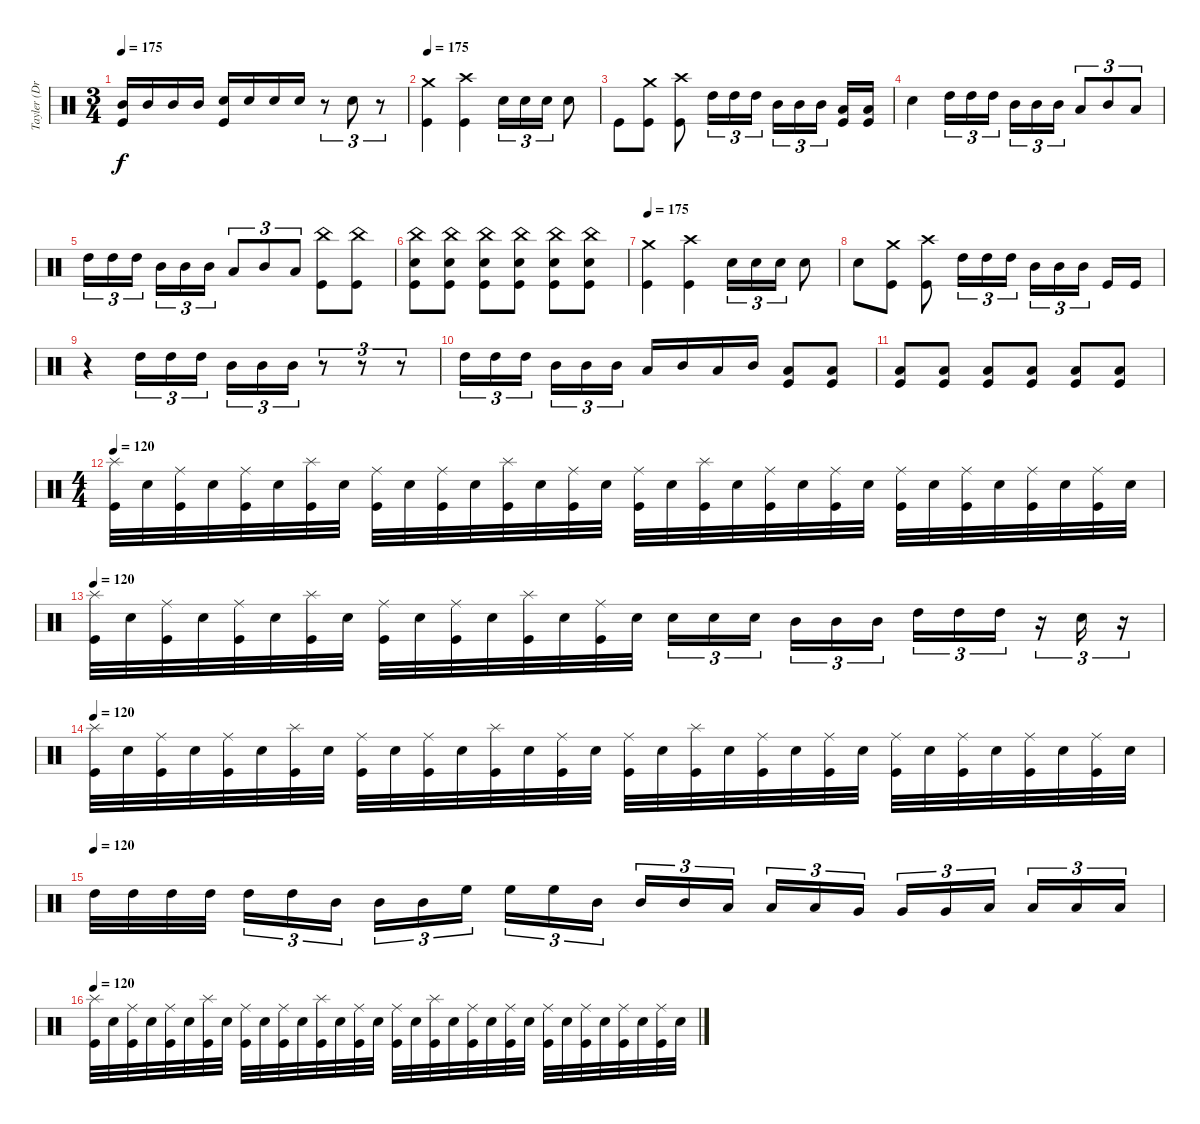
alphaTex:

\track ("Tayler (Drums)" "Tayler (Dr") {instrument percussion}
\staff {score}
\articulation defaults
\ts (3 4)
\tempo 175
\clef neutral
\ks c
("Mid Tom (hit)" "Kick (hit)").16{dy f} "Mid Tom (hit)".16 "Mid Tom (hit)".16 "Mid Tom (hit)".16 ("Electric Snare (hit)" "Kick (hit)").16 "Electric Snare (hit)".16 "Electric Snare (hit)".16 "Electric Snare (hit)".16 r.8{tu (3 2)} "Electric Snare (hit)".8{tu (3 2)} r.8{tu (3 2)} |
\tempo 175
("Crash medium (hit)" "Kick (hit)").4 ("Crash high (hit)" "Kick (hit)").4 "Electric Snare (hit)".16{tu (3 2)} "Electric Snare (hit)".16{tu (3 2)} "Electric Snare (hit)".16{tu (3 2)} "Electric Snare (hit)".8 |
"Kick (hit)".8 ("Crash medium (hit)" "Kick (hit)").8 ("Crash high (hit)" "Kick (hit)").8 "High Tom (hit)".16{tu (3 2)} "High Tom (hit)".16{tu (3 2)} "High Tom (hit)".16{tu (3 2)} "Mid Tom (hit)".16{tu (3 2)} "Mid Tom (hit)".16{tu (3 2)} "Mid Tom (hit)".16{tu (3 2)} ("Low Tom (hit)" "Kick (hit)").16 ("Low Tom (hit)" "Kick (hit)").16 |
"Electric Snare (hit)".4 "High Tom (hit)".16{tu (3 2)} "High Tom (hit)".16{tu (3 2)} "High Tom (hit)".16{tu (3 2)} "Mid Tom (hit)".16{tu (3 2)} "Mid Tom (hit)".16{tu (3 2)} "Mid Tom (hit)".16{tu (3 2)} "Low Tom (hit)".8{tu (3 2)} "Mid Tom (hit)".8{tu (3 2)} "Low Tom (hit)".8{tu (3 2)} |
"High Tom (hit)".16{tu (3 2)} "High Tom (hit)".16{tu (3 2)} "High Tom (hit)".16{tu (3 2)} "Mid Tom (hit)".16{tu (3 2)} "Mid Tom (hit)".16{tu (3 2)} "Mid Tom (hit)".16{tu (3 2)} "Low Tom (hit)".8{tu (3 2)} "Mid Tom (hit)".8{tu (3 2)} "Low Tom (hit)".8{tu (3 2)} ("China (hit)" "Kick (hit)").8 ("China (hit)" "Kick (hit)").8 |
("China (hit)" "Electric Snare (hit)" "Kick (hit)").8 ("China (hit)" "Electric Snare (hit)" "Kick (hit)").8 ("China (hit)" "Electric Snare (hit)" "Kick (hit)").8 ("China (hit)" "Electric Snare (hit)" "Kick (hit)").8 ("China (hit)" "Electric Snare (hit)" "Kick (hit)").8 ("China (hit)" "Electric Snare (hit)" "Kick (hit)").8 |
\tempo 175
("Crash medium (hit)" "Kick (hit)").4 ("Crash high (hit)" "Kick (hit)").4 "Electric Snare (hit)".16{tu (3 2)} "Electric Snare (hit)".16{tu (3 2)} "Electric Snare (hit)".16{tu (3 2)} "Electric Snare (hit)".8 |
"Electric Snare (hit)".8 ("Crash medium (hit)" "Kick (hit)").8 ("Crash high (hit)" "Kick (hit)").8 "High Tom (hit)".16{tu (3 2)} "High Tom (hit)".16{tu (3 2)} "High Tom (hit)".16{tu (3 2)} "Mid Tom (hit)".16{tu (3 2)} "Mid Tom (hit)".16{tu (3 2)} "Mid Tom (hit)".16{tu (3 2)} "Kick (hit)".16 "Kick (hit)".16 |
r.4 "High Tom (hit)".16{tu (3 2)} "High Tom (hit)".16{tu (3 2)} "High Tom (hit)".16{tu (3 2)} "Mid Tom (hit)".16{tu (3 2)} "Mid Tom (hit)".16{tu (3 2)} "Mid Tom (hit)".16{tu (3 2)} r.8{tu (3 2)} r.8{tu (3 2)} r.8{tu (3 2)} |
"High Tom (hit)".16{tu (3 2)} "High Tom (hit)".16{tu (3 2)} "High Tom (hit)".16{tu (3 2)} "Mid Tom (hit)".16{tu (3 2)} "Mid Tom (hit)".16{tu (3 2)} "Mid Tom (hit)".16{tu (3 2)} "Low Tom (hit)".16 "Mid Tom (hit)".16 "Low Tom (hit)".16 "Mid Tom (hit)".16 ("Low Tom (hit)" "Kick (hit)").8 ("Low Tom (hit)" "Kick (hit)").8 |
("Low Tom (hit)" "Kick (hit)").8 ("Low Tom (hit)" "Kick (hit)").8 ("Low Tom (hit)" "Kick (hit)").8 ("Low Tom (hit)" "Kick (hit)").8 ("Low Tom (hit)" "Kick (hit)").8 ("Low Tom (hit)" "Kick (hit)").8 |
\ts (4 4)
\tempo 120
("Splash (hit)" "Kick (hit)").32 "Electric Snare (hit)".32 ("Ride (middle)" "Kick (hit)").32 "Electric Snare (hit)".32 ("Ride (middle)" "Kick (hit)").32 "Electric Snare (hit)".32 ("Splash (hit)" "Kick (hit)").32 "Electric Snare (hit)".32 ("Ride (middle)" "Kick (hit)").32 "Electric Snare (hit)".32 ("Ride (middle)" "Kick (hit)").32 "Electric Snare (hit)".32 ("Splash (hit)" "Kick (hit)").32 "Electric Snare (hit)".32 ("Ride (middle)" "Kick (hit)").32 "Electric Snare (hit)".32 ("Ride (middle)" "Kick (hit)").32 "Electric Snare (hit)".32 ("Splash (hit)" "Kick (hit)").32 "Electric Snare (hit)".32 ("Ride (middle)" "Kick (hit)").32 "Electric Snare (hit)".32 ("Ride (middle)" "Kick (hit)").32 "Electric Snare (hit)".32 ("Ride (middle)" "Kick (hit)").32 "Electric Snare (hit)".32 ("Ride (middle)" "Kick (hit)").32 "Electric Snare (hit)".32 ("Ride (middle)" "Kick (hit)").32 "Electric Snare (hit)".32 ("Ride (middle)" "Kick (hit)").32 "Electric Snare (hit)".32 |
\tempo 120
("Splash (hit)" "Kick (hit)").32 "Electric Snare (hit)".32 ("Ride (middle)" "Kick (hit)").32 "Electric Snare (hit)".32 ("Ride (middle)" "Kick (hit)").32 "Electric Snare (hit)".32 ("Splash (hit)" "Kick (hit)").32 "Electric Snare (hit)".32 ("Ride (middle)" "Kick (hit)").32 "Electric Snare (hit)".32 ("Ride (middle)" "Kick (hit)").32 "Electric Snare (hit)".32 ("Splash (hit)" "Kick (hit)").32 "Electric Snare (hit)".32 ("Ride (middle)" "Kick (hit)").32 "Electric Snare (hit)".32 "Electric Snare (hit)".16{tu (3 2)} "Electric Snare (hit)".16{tu (3 2)} "Electric Snare (hit)".16{tu (3 2)} "Mid Tom (hit)".16{tu (3 2)} "Mid Tom (hit)".16{tu (3 2)} "Mid Tom (hit)".16{tu (3 2)} "High Tom (hit)".16{tu (3 2)} "High Tom (hit)".16{tu (3 2)} "High Tom (hit)".16{tu (3 2)} r.16{tu (3 2)} "Electric Snare (hit)".16{tu (3 2)} r.16{tu (3 2)} |
\tempo 120
("Splash (hit)" "Kick (hit)").32 "Electric Snare (hit)".32 ("Ride (middle)" "Kick (hit)").32 "Electric Snare (hit)".32 ("Ride (middle)" "Kick (hit)").32 "Electric Snare (hit)".32 ("Splash (hit)" "Kick (hit)").32 "Electric Snare (hit)".32 ("Ride (middle)" "Kick (hit)").32 "Electric Snare (hit)".32 ("Ride (middle)" "Kick (hit)").32 "Electric Snare (hit)".32 ("Splash (hit)" "Kick (hit)").32 "Electric Snare (hit)".32 ("Ride (middle)" "Kick (hit)").32 "Electric Snare (hit)".32 ("Ride (middle)" "Kick (hit)").32 "Electric Snare (hit)".32 ("Splash (hit)" "Kick (hit)").32 "Electric Snare (hit)".32 ("Ride (middle)" "Kick (hit)").32 "Electric Snare (hit)".32 ("Ride (middle)" "Kick (hit)").32 "Electric Snare (hit)".32 ("Ride (middle)" "Kick (hit)").32 "Electric Snare (hit)".32 ("Ride (middle)" "Kick (hit)").32 "Electric Snare (hit)".32 ("Ride (middle)" "Kick (hit)").32 "Electric Snare (hit)".32 ("Ride (middle)" "Kick (hit)").32 "Electric Snare (hit)".32 |
\tempo (120)
"High Tom (hit)".32 "High Tom (hit)".32 "High Tom (hit)".32 "High Tom (hit)".32 "High Tom (hit)".16{tu (3 2)} "High Tom (hit)".16{tu (3 2)} "Mid Tom (hit)".16{tu (3 2)} "Mid Tom (hit)".16{tu (3 2)} "Mid Tom (hit)".16{tu (3 2)} "High Floor Tom (hit)".16{tu (3 2)} "High Floor Tom (hit)".16{tu (3 2)} "High Floor Tom (hit)".16{tu (3 2)} "Mid Tom (hit)".16{tu (3 2)} "Mid Tom (hit)".16{tu (3 2)} "Mid Tom (hit)".16{tu (3 2)} "Low Tom (hit)".16{tu (3 2)} "Low Tom (hit)".16{tu (3 2)} "Low Tom (hit)".16{tu (3 2)} "Very Low Tom (hit)".16{tu (3 2)} "Very Low Tom (hit)".16{tu (3 2)} "Very Low Tom (hit)".16{tu (3 2)} "Low Floor Tom (hit)".16{tu (3 2)} "Low Floor Tom (hit)".16{tu (3 2)} "Low Floor Tom (hit)".16{tu (3 2)} "Low Floor Tom (hit)".16{tu (3 2)} |
\tempo 120
("Splash (hit)" "Kick (hit)").32 "Electric Snare (hit)".32 ("Ride (middle)" "Kick (hit)").32 "Electric Snare (hit)".32 ("Ride (middle)" "Kick (hit)").32 "Electric Snare (hit)".32 ("Splash (hit)" "Kick (hit)").32 "Electric Snare (hit)".32 ("Ride (middle)" "Kick (hit)").32 "Electric Snare (hit)".32 ("Ride (middle)" "Kick (hit)").32 "Electric Snare (hit)".32 ("Splash (hit)" "Kick (hit)").32 "Electric Snare (hit)".32 ("Ride (middle)" "Kick (hit)").32 "Electric Snare (hit)".32 ("Ride (middle)" "Kick (hit)").32 "Electric Snare (hit)".32 ("Splash (hit)" "Kick (hit)").32 "Electric Snare (hit)".32 ("Ride (middle)" "Kick (hit)").32 "Electric Snare (hit)".32 ("Ride (middle)" "Kick (hit)").32 "Electric Snare (hit)".32 ("Ride (middle)" "Kick (hit)").32 "Electric Snare (hit)".32 ("Ride (middle)" "Kick (hit)").32 "Electric Snare (hit)".32 ("Ride (middle)" "Kick (hit)").32 "Electric Snare (hit)".32 ("Ride (middle)" "Kick (hit)").32 "Electric Snare (hit)".32
